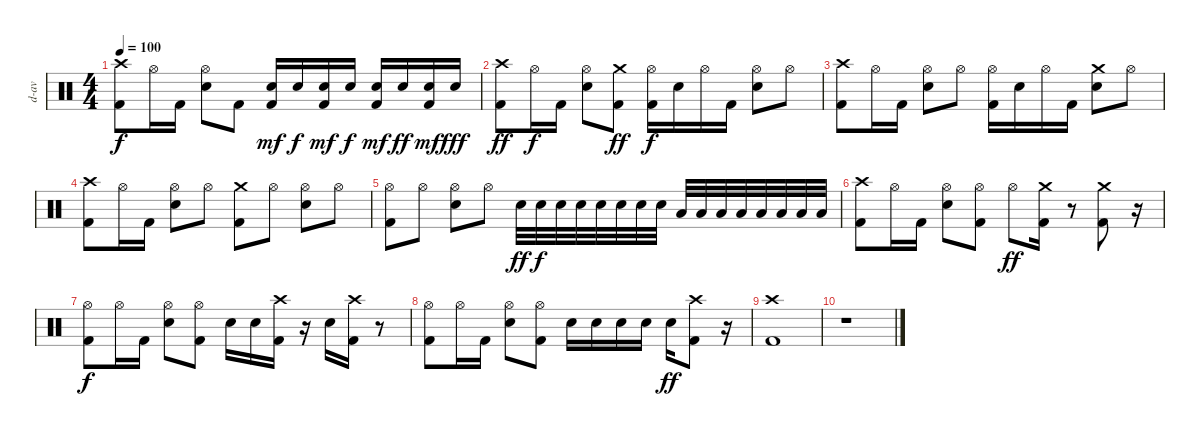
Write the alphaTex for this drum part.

\track ("d-av" "d-av") {instrument percussion}
\staff {score}
\articulation defaults
\ts (4 4)
\tempo 100
\clef neutral
\ks c
("Crash high (hit)" "Kick (hit) 2").8{dy f} "Hi-Hat (open)".16 "Kick (hit) 2".16 ("Hi-Hat (open)" "Electric Snare (hit)").8 "Kick (hit) 2".8 ("Electric Snare (hit)" "Kick (hit) 2").16{dy mf} "Electric Snare (hit)".16{dy f} ("Electric Snare (hit)" "Kick (hit) 2").16{dy mf} "Electric Snare (hit)".16{dy f} ("Electric Snare (hit)" "Kick (hit) 2").16{dy mf} "Electric Snare (hit)".16{dy ff} ("Electric Snare (hit)" "Kick (hit) 2").16{dy mf} "Electric Snare (hit)".16{dy fff} |
("Crash high (hit)" "Kick (hit) 2").8{dy ff} "Hi-Hat (open)".16{dy f} "Kick (hit) 2".16 ("Hi-Hat (open)" "Electric Snare (hit)").8 ("Crash medium (hit)" "Kick (hit) 2").8{dy ff} ("Hi-Hat (open)" "Kick (hit) 2").16{dy f} "Electric Snare (hit)".16 "Hi-Hat (open)".16 "Kick (hit) 2".16 ("Hi-Hat (open)" "Electric Snare (hit)").8 "Hi-Hat (open)".8 |
("Crash high (hit)" "Kick (hit) 2").8 "Hi-Hat (open)".16 "Kick (hit) 2".16 ("Hi-Hat (open)" "Electric Snare (hit)").8 "Hi-Hat (open)".8 ("Hi-Hat (open)" "Kick (hit) 2").16 "Electric Snare (hit)".16 "Hi-Hat (open)".16 "Kick (hit) 2".16 ("Crash medium (hit)" "Electric Snare (hit)").8 "Hi-Hat (open)".8 |
("Crash high (hit)" "Kick (hit) 2").8 "Hi-Hat (open)".16 "Kick (hit) 2".16 ("Hi-Hat (open)" "Electric Snare (hit)").8 "Hi-Hat (open)".8 ("Crash medium (hit)" "Kick (hit) 2").8 "Hi-Hat (open)".8 ("Hi-Hat (open)" "Electric Snare (hit)").8 "Hi-Hat (open)".8 |
("Hi-Hat (open)" "Kick (hit) 2").8 "Hi-Hat (open)".8 ("Hi-Hat (open)" "Electric Snare (hit)").8 "Hi-Hat (open)".8 "Electric Snare (hit)".32{dy ff} "Electric Snare (hit)".32{dy f} "Electric Snare (hit)".32 "Electric Snare (hit)".32 "Electric Snare (hit)".32 "Electric Snare (hit)".32 "Electric Snare (hit)".32 "Electric Snare (hit)".32 "Low Tom (hit)".32 "Low Tom (hit)".32 "Low Tom (hit)".32 "Low Tom (hit)".32 "Low Floor Tom (hit)".32 "Low Floor Tom (hit)".32 "Low Floor Tom (hit)".32 "Low Floor Tom (hit)".32 |
("Crash high (hit)" "Kick (hit) 2").8 "Hi-Hat (open)".16 "Kick (hit) 2".16 ("Hi-Hat (open)" "Electric Snare (hit)").8 ("Hi-Hat (open)" "Kick (hit) 2").8 "Hi-Hat (open)".8{dy ff} ("Crash medium (hit)" "Kick (hit) 2").16 r.8 ("Crash medium (hit)" "Kick (hit) 2").8 r.16 |
("Hi-Hat (open)" "Kick (hit) 2").8{dy f} "Hi-Hat (open)".16 "Kick (hit) 2".16 ("Hi-Hat (open)" "Electric Snare (hit)").8 ("Hi-Hat (open)" "Kick (hit) 2").8 "Electric Snare (hit)".16 "Electric Snare (hit)".16 ("Crash high (hit)" "Kick (hit) 2").16 r.16 "Electric Snare (hit)".16 ("Crash high (hit)" "Kick (hit) 2").16 r.8 |
("Hi-Hat (open)" "Kick (hit) 2").8 "Hi-Hat (open)".16 "Kick (hit) 2".16 ("Hi-Hat (open)" "Electric Snare (hit)").8 ("Hi-Hat (open)" "Kick (hit) 2").8 "Electric Snare (hit)".16 "Electric Snare (hit)".16 "Electric Snare (hit)".16 "Electric Snare (hit)".16 "Electric Snare (hit)".16{dy ff} ("Crash high (hit)" "Kick (hit) 2").8 r.16 |
("Crash high (hit)" "Kick (hit) 2").1 |
r.1
